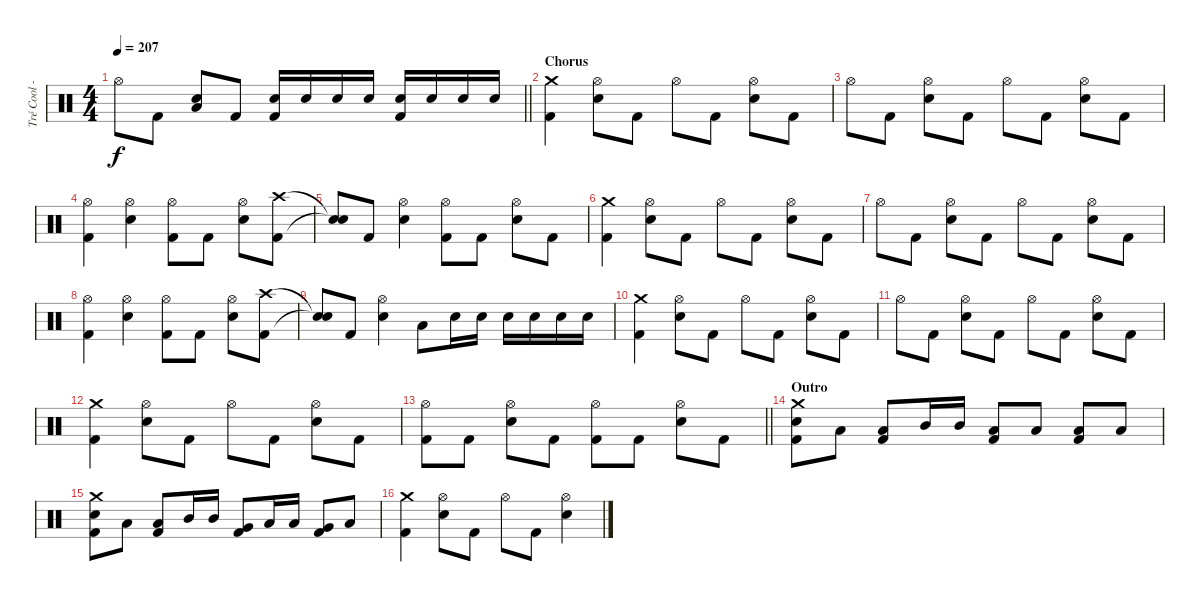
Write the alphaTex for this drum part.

\track ("Tré Cool - Drums" "Tré Cool -") {instrument percussion}
\staff {score}
\articulation defaults
\ts (4 4)
\tempo 207
\clef neutral
\barLineRight lightlight
\ks c "Hi-Hat (open)".8{dy f} "Kick (hit) 2".8
("Low Floor Tom (hit)" "Electric Snare (hit)").8 "Kick (hit) 2".8 ("Electric Snare (hit)" "Kick (hit) 2").16 "Electric Snare (hit)".16 "Electric Snare (hit)".16 "Electric Snare (hit)".16 ("Electric Snare (hit)" "Kick (hit) 2").16 "Electric Snare (hit)".16 "Electric Snare (hit)".16 "Electric Snare (hit)".16 |
\section ("" "Chorus")
("Crash medium (hit)" "Kick (hit) 2").4 ("Hi-Hat (open)" "Electric Snare (hit)").8 "Kick (hit) 2".8 "Hi-Hat (open)".8 "Kick (hit) 2".8 ("Hi-Hat (open)" "Electric Snare (hit)").8 "Kick (hit) 2".8 |
"Hi-Hat (open)".8 "Kick (hit) 2".8 ("Hi-Hat (open)" "Electric Snare (hit)").8 "Kick (hit) 2".8 "Hi-Hat (open)".8 "Kick (hit) 2".8 ("Hi-Hat (open)" "Electric Snare (hit)").8 "Kick (hit) 2".8 |
("Hi-Hat (open)" "Kick (hit) 2").4 ("Hi-Hat (open)" "Electric Snare (hit)").4 ("Hi-Hat (open)" "Kick (hit) 2").8 "Kick (hit) 2".8 ("Hi-Hat (open)" "Electric Snare (hit)").8 ("Crash high (hit)" "Kick (hit) 2").8 |
("Snare (hit)"{t} "Snare (hit)"{t}).8 "Kick (hit) 2".8 ("Hi-Hat (open)" "Electric Snare (hit)").4 ("Hi-Hat (open)" "Kick (hit) 2").8 "Kick (hit) 2".8 ("Hi-Hat (open)" "Electric Snare (hit)").8 "Kick (hit) 2".8 |
("Crash medium (hit)" "Kick (hit) 2").4 ("Hi-Hat (open)" "Electric Snare (hit)").8 "Kick (hit) 2".8 "Hi-Hat (open)".8 "Kick (hit) 2".8 ("Hi-Hat (open)" "Electric Snare (hit)").8 "Kick (hit) 2".8 |
"Hi-Hat (open)".8 "Kick (hit) 2".8 ("Hi-Hat (open)" "Electric Snare (hit)").8 "Kick (hit) 2".8 "Hi-Hat (open)".8 "Kick (hit) 2".8 ("Hi-Hat (open)" "Electric Snare (hit)").8 "Kick (hit) 2".8 |
("Hi-Hat (open)" "Kick (hit) 2").4 ("Hi-Hat (open)" "Electric Snare (hit)").4 ("Hi-Hat (open)" "Kick (hit) 2").8 "Kick (hit) 2".8 ("Hi-Hat (open)" "Electric Snare (hit)").8 ("Crash high (hit)" "Kick (hit) 2").8 |
("Snare (hit)"{t} "Snare (hit)"{t}).8 "Kick (hit) 2".8 ("Hi-Hat (open)" "Electric Snare (hit)").4 "Low Tom (hit)".8 "Electric Snare (hit)".16 "Electric Snare (hit)".16 "Electric Snare (hit)".16 "Electric Snare (hit)".16 "Electric Snare (hit)".16 "Electric Snare (hit)".16 |
("Crash medium (hit)" "Kick (hit) 2").4 ("Hi-Hat (open)" "Electric Snare (hit)").8 "Kick (hit) 2".8 "Hi-Hat (open)".8 "Kick (hit) 2".8 ("Hi-Hat (open)" "Electric Snare (hit)").8 "Kick (hit) 2".8 |
"Hi-Hat (open)".8 "Kick (hit) 2".8 ("Hi-Hat (open)" "Electric Snare (hit)").8 "Kick (hit) 2".8 "Hi-Hat (open)".8 "Kick (hit) 2".8 ("Hi-Hat (open)" "Electric Snare (hit)").8 "Kick (hit) 2".8 |
("Crash medium (hit)" "Kick (hit) 2").4 ("Hi-Hat (open)" "Electric Snare (hit)").8 "Kick (hit) 2".8 "Hi-Hat (open)".8 "Kick (hit) 2".8 ("Hi-Hat (open)" "Electric Snare (hit)").8 "Kick (hit) 2".8 |
\barLineRight lightlight
("Hi-Hat (open)" "Kick (hit) 2").8 "Kick (hit) 2".8 ("Hi-Hat (open)" "Electric Snare (hit)").8 "Kick (hit) 2".8 ("Hi-Hat (open)" "Kick (hit) 2").8 "Kick (hit) 2".8 ("Hi-Hat (open)" "Electric Snare (hit)").8 "Kick (hit) 2".8 |
\section ("" "Outro")
("Crash medium (hit)" "Electric Snare (hit)" "Kick (hit) 2").8 "Low Floor Tom (hit)".8 ("Low Floor Tom (hit)" "Kick (hit) 2").8 "Mid Tom (hit)".16 "Mid Tom (hit)".16 ("Low Tom (hit)" "Kick (hit) 2").8 "Low Floor Tom (hit)".8 ("Low Floor Tom (hit)" "Kick (hit) 2").8 "Low Floor Tom (hit)".8 |
("Crash medium (hit)" "Electric Snare (hit)" "Kick (hit) 2").8 "Low Floor Tom (hit)".8 ("Low Floor Tom (hit)" "Kick (hit) 2").8 "Mid Tom (hit)".16 "Mid Tom (hit)".16 ("Very Low Tom (hit)" "Kick (hit) 2").8 "Low Tom (hit)".16 "Low Tom (hit)".16 ("Very Low Tom (hit)" "Kick (hit) 2").8 "Low Floor Tom (hit)".8 |
("Crash medium (hit)" "Kick (hit) 2").4 ("Hi-Hat (open)" "Electric Snare (hit)").8 "Kick (hit) 2".8 "Hi-Hat (open)".8 "Kick (hit) 2".8 ("Hi-Hat (open)" "Electric Snare (hit)").4
